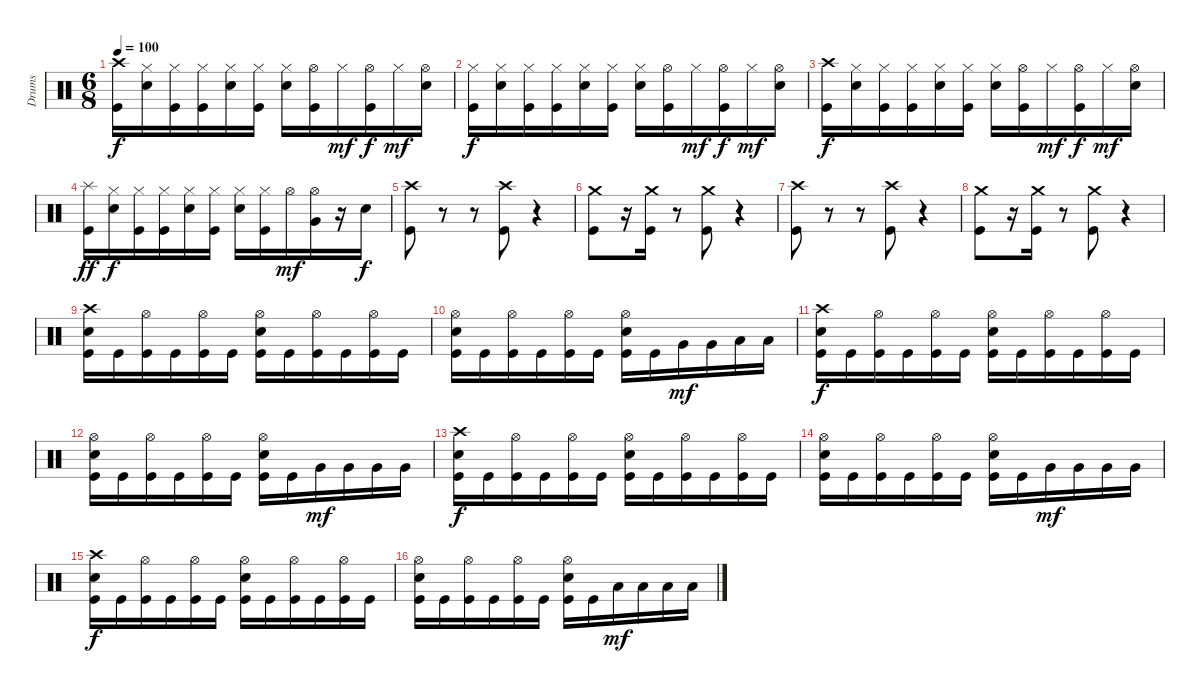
\track ("Drums" "Drums") {instrument percussion}
\staff {score}
\articulation defaults
\ts (6 8)
\tempo 100
\clef neutral
\ks c
("Crash high (hit)" "Kick (hit)").16{dy f} ("Hi-Hat (closed)" "Electric Snare (hit)").16 ("Hi-Hat (closed)" "Kick (hit)").16 ("Hi-Hat (closed)" "Kick (hit)").16 ("Hi-Hat (closed)" "Electric Snare (hit)").16 ("Hi-Hat (closed)" "Kick (hit)").16 ("Hi-Hat (closed)" "Electric Snare (hit)").16 ("Hi-Hat (open)" "Kick (hit)").16 "Hi-Hat (closed)".16{dy mf} ("Hi-Hat (open)" "Kick (hit)").16{dy f} "Hi-Hat (closed)".16{dy mf} ("Hi-Hat (open)" "Electric Snare (hit)").16 |
("Hi-Hat (closed)" "Kick (hit)").16{dy f} ("Hi-Hat (closed)" "Electric Snare (hit)").16 ("Hi-Hat (closed)" "Kick (hit)").16 ("Hi-Hat (closed)" "Kick (hit)").16 ("Hi-Hat (closed)" "Electric Snare (hit)").16 ("Hi-Hat (closed)" "Kick (hit)").16 ("Hi-Hat (closed)" "Electric Snare (hit)").16 ("Hi-Hat (open)" "Kick (hit)").16 "Hi-Hat (closed)".16{dy mf} ("Hi-Hat (open)" "Kick (hit)").16{dy f} "Hi-Hat (closed)".16{dy mf} ("Hi-Hat (open)" "Electric Snare (hit)").16 |
("Crash high (hit)" "Kick (hit)").16{dy f} ("Hi-Hat (closed)" "Electric Snare (hit)").16 ("Hi-Hat (closed)" "Kick (hit)").16 ("Hi-Hat (closed)" "Kick (hit)").16 ("Hi-Hat (closed)" "Electric Snare (hit)").16 ("Hi-Hat (closed)" "Kick (hit)").16 ("Hi-Hat (closed)" "Electric Snare (hit)").16 ("Hi-Hat (open)" "Kick (hit)").16 "Hi-Hat (closed)".16{dy mf} ("Hi-Hat (open)" "Kick (hit)").16{dy f} "Hi-Hat (closed)".16{dy mf} ("Hi-Hat (open)" "Electric Snare (hit)").16 |
("Splash (hit)" "Kick (hit)").16{dy ff} ("Hi-Hat (closed)" "Electric Snare (hit)").16{dy f} ("Hi-Hat (closed)" "Kick (hit)").16 ("Hi-Hat (closed)" "Kick (hit)").16 ("Hi-Hat (closed)" "Electric Snare (hit)").16 ("Hi-Hat (closed)" "Kick (hit)").16 ("Hi-Hat (closed)" "Electric Snare (hit)").16 ("Hi-Hat (closed)" "Kick (hit)").16 "Hi-Hat (open)".16{dy mf} ("Hi-Hat (open)" "Very Low Tom (hit)").16 r.16 "Electric Snare (hit)".16{dy f} |
("Crash high (hit)" "Kick (hit)").8{volume 12} r.8 r.8 ("Crash high (hit)" "Kick (hit)").8 r.4 |
("Crash medium (hit)" "Kick (hit)").8 r.16 ("Crash medium (hit)" "Kick (hit)").16 r.8 ("Crash medium (hit)" "Kick (hit)").8 r.4 |
("Crash high (hit)" "Kick (hit)").8 r.8 r.8 ("Crash high (hit)" "Kick (hit)").8 r.4 |
("Crash medium (hit)" "Kick (hit)").8 r.16 ("Crash medium (hit)" "Kick (hit)").16 r.8 ("Crash medium (hit)" "Kick (hit)").8 r.4 |
("Crash high (hit)" "Electric Snare (hit)" "Kick (hit)").16 "Kick (hit)".16 ("Hi-Hat (open)" "Kick (hit)").16 "Kick (hit)".16 ("Hi-Hat (open)" "Kick (hit)").16 "Kick (hit)".16 ("Hi-Hat (open)" "Electric Snare (hit)" "Kick (hit)").16 "Kick (hit)".16 ("Hi-Hat (open)" "Kick (hit)").16 "Kick (hit)".16 ("Hi-Hat (open)" "Kick (hit)").16 "Kick (hit)".16 |
("Hi-Hat (open)" "Electric Snare (hit)" "Kick (hit)").16 "Kick (hit)".16 ("Hi-Hat (open)" "Kick (hit)").16 "Kick (hit)".16 ("Hi-Hat (open)" "Kick (hit)").16 "Kick (hit)".16 ("Hi-Hat (open)" "Electric Snare (hit)" "Kick (hit)").16 "Kick (hit)".16 "Very Low Tom (hit)".16{dy mf} "Very Low Tom (hit)".16 "Low Floor Tom (hit)".16 "Low Floor Tom (hit)".16 |
("Crash high (hit)" "Electric Snare (hit)" "Kick (hit)").16{dy f} "Kick (hit)".16 ("Hi-Hat (open)" "Kick (hit)").16 "Kick (hit)".16 ("Hi-Hat (open)" "Kick (hit)").16 "Kick (hit)".16 ("Hi-Hat (open)" "Electric Snare (hit)" "Kick (hit)").16 "Kick (hit)".16 ("Hi-Hat (open)" "Kick (hit)").16 "Kick (hit)".16 ("Hi-Hat (open)" "Kick (hit)").16 "Kick (hit)".16 |
("Hi-Hat (open)" "Electric Snare (hit)" "Kick (hit)").16 "Kick (hit)".16 ("Hi-Hat (open)" "Kick (hit)").16 "Kick (hit)".16 ("Hi-Hat (open)" "Kick (hit)").16 "Kick (hit)".16 ("Hi-Hat (open)" "Electric Snare (hit)" "Kick (hit)").16 "Kick (hit)".16 "Very Low Tom (hit)".16{dy mf} "Very Low Tom (hit)".16 "Very Low Tom (hit)".16 "Very Low Tom (hit)".16 |
("Crash high (hit)" "Electric Snare (hit)" "Kick (hit)").16{dy f} "Kick (hit)".16 ("Hi-Hat (open)" "Kick (hit)").16 "Kick (hit)".16 ("Hi-Hat (open)" "Kick (hit)").16 "Kick (hit)".16 ("Hi-Hat (open)" "Electric Snare (hit)" "Kick (hit)").16 "Kick (hit)".16 ("Hi-Hat (open)" "Kick (hit)").16 "Kick (hit)".16 ("Hi-Hat (open)" "Kick (hit)").16 "Kick (hit)".16 |
("Hi-Hat (open)" "Electric Snare (hit)" "Kick (hit)").16 "Kick (hit)".16 ("Hi-Hat (open)" "Kick (hit)").16 "Kick (hit)".16 ("Hi-Hat (open)" "Kick (hit)").16 "Kick (hit)".16 ("Hi-Hat (open)" "Electric Snare (hit)" "Kick (hit)").16 "Kick (hit)".16 "Very Low Tom (hit)".16{dy mf} "Very Low Tom (hit)".16 "Very Low Tom (hit)".16 "Very Low Tom (hit)".16 |
("Crash high (hit)" "Electric Snare (hit)" "Kick (hit)").16{dy f} "Kick (hit)".16 ("Hi-Hat (open)" "Kick (hit)").16 "Kick (hit)".16 ("Hi-Hat (open)" "Kick (hit)").16 "Kick (hit)".16 ("Hi-Hat (open)" "Electric Snare (hit)" "Kick (hit)").16 "Kick (hit)".16 ("Hi-Hat (open)" "Kick (hit)").16 "Kick (hit)".16 ("Hi-Hat (open)" "Kick (hit)").16 "Kick (hit)".16 |
("Hi-Hat (open)" "Electric Snare (hit)" "Kick (hit)").16 "Kick (hit)".16 ("Hi-Hat (open)" "Kick (hit)").16 "Kick (hit)".16 ("Hi-Hat (open)" "Kick (hit)").16 "Kick (hit)".16 ("Hi-Hat (open)" "Electric Snare (hit)" "Kick (hit)").16 "Kick (hit)".16 "Low Floor Tom (hit)".16{dy mf} "Low Floor Tom (hit)".16 "Low Floor Tom (hit)".16 "Low Floor Tom (hit)".16
